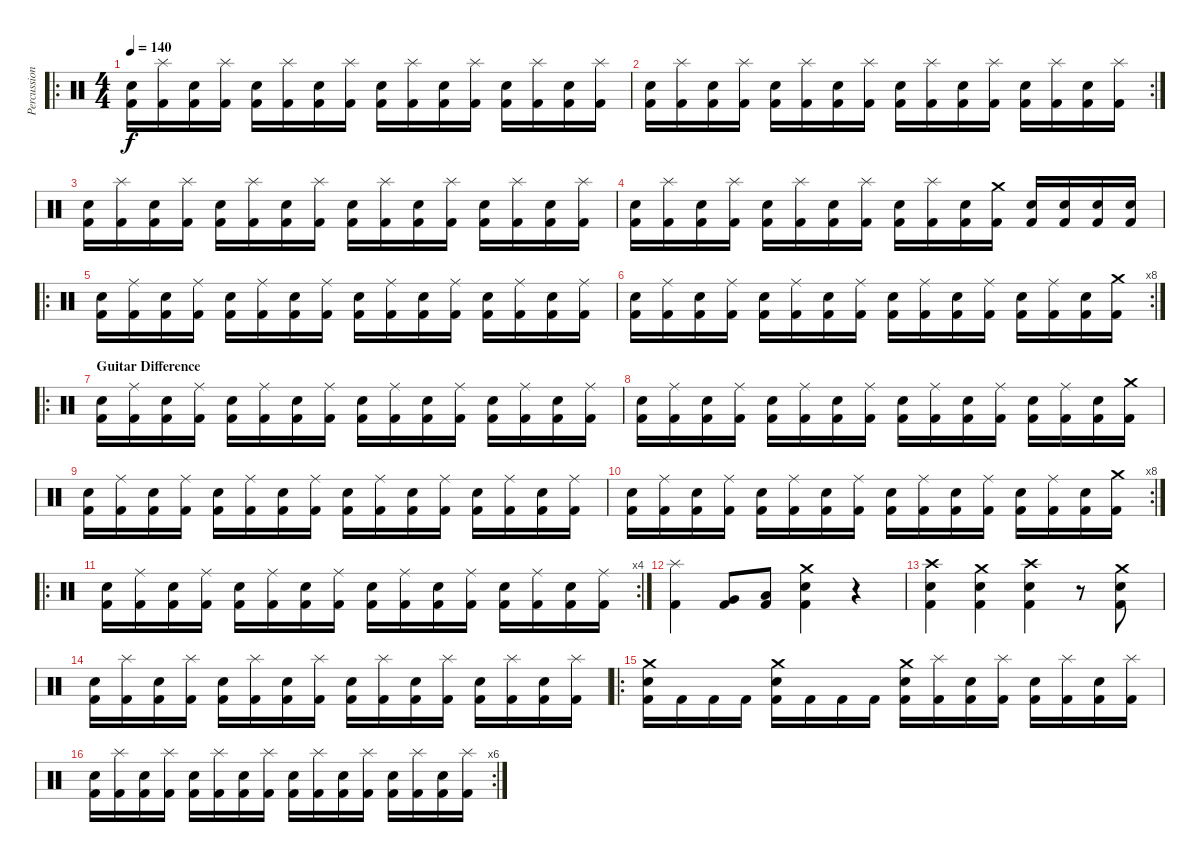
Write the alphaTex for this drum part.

\track ("Percussion" "Percussion") {instrument percussion}
\staff {score}
\articulation defaults
\ro
\ts (4 4)
\tempo 140
\clef neutral
\ks c
("Electric Snare (hit)" "Kick (hit) 2").16{dy f} ("Splash (hit)" "Kick (hit) 2").16 ("Electric Snare (hit)" "Kick (hit) 2").16 ("Splash (hit)" "Kick (hit) 2").16 ("Electric Snare (hit)" "Kick (hit) 2").16 ("Splash (hit)" "Kick (hit) 2").16 ("Electric Snare (hit)" "Kick (hit) 2").16 ("Splash (hit)" "Kick (hit) 2").16 ("Electric Snare (hit)" "Kick (hit) 2").16 ("Splash (hit)" "Kick (hit) 2").16 ("Electric Snare (hit)" "Kick (hit) 2").16 ("Splash (hit)" "Kick (hit) 2").16 ("Electric Snare (hit)" "Kick (hit) 2").16 ("Splash (hit)" "Kick (hit) 2").16 ("Electric Snare (hit)" "Kick (hit) 2").16 ("Splash (hit)" "Kick (hit) 2").16 |
\rc 2
("Electric Snare (hit)" "Kick (hit) 2").16 ("Splash (hit)" "Kick (hit) 2").16 ("Electric Snare (hit)" "Kick (hit) 2").16 ("Splash (hit)" "Kick (hit) 2").16 ("Electric Snare (hit)" "Kick (hit) 2").16 ("Splash (hit)" "Kick (hit) 2").16 ("Electric Snare (hit)" "Kick (hit) 2").16 ("Splash (hit)" "Kick (hit) 2").16 ("Electric Snare (hit)" "Kick (hit) 2").16 ("Splash (hit)" "Kick (hit) 2").16 ("Electric Snare (hit)" "Kick (hit) 2").16 ("Splash (hit)" "Kick (hit) 2").16 ("Electric Snare (hit)" "Kick (hit) 2").16 ("Splash (hit)" "Kick (hit) 2").16 ("Electric Snare (hit)" "Kick (hit) 2").16 ("Splash (hit)" "Kick (hit) 2").16 |
("Electric Snare (hit)" "Kick (hit) 2").16 ("Splash (hit)" "Kick (hit) 2").16 ("Electric Snare (hit)" "Kick (hit) 2").16 ("Splash (hit)" "Kick (hit) 2").16 ("Electric Snare (hit)" "Kick (hit) 2").16 ("Splash (hit)" "Kick (hit) 2").16 ("Electric Snare (hit)" "Kick (hit) 2").16 ("Splash (hit)" "Kick (hit) 2").16 ("Electric Snare (hit)" "Kick (hit) 2").16 ("Splash (hit)" "Kick (hit) 2").16 ("Electric Snare (hit)" "Kick (hit) 2").16 ("Splash (hit)" "Kick (hit) 2").16 ("Electric Snare (hit)" "Kick (hit) 2").16 ("Splash (hit)" "Kick (hit) 2").16 ("Electric Snare (hit)" "Kick (hit) 2").16 ("Splash (hit)" "Kick (hit) 2").16 |
("Electric Snare (hit)" "Kick (hit) 2").16 ("Splash (hit)" "Kick (hit) 2").16 ("Electric Snare (hit)" "Kick (hit) 2").16 ("Splash (hit)" "Kick (hit) 2").16 ("Electric Snare (hit)" "Kick (hit) 2").16 ("Splash (hit)" "Kick (hit) 2").16 ("Electric Snare (hit)" "Kick (hit) 2").16 ("Splash (hit)" "Kick (hit) 2").16 ("Electric Snare (hit)" "Kick (hit) 2").16 ("Splash (hit)" "Kick (hit) 2").16 ("Electric Snare (hit)" "Kick (hit) 2").16 ("Crash medium (hit)" "Kick (hit) 2").16 ("Electric Snare (hit)" "Kick (hit) 2").16 ("Electric Snare (hit)" "Kick (hit) 2").16 ("Electric Snare (hit)" "Kick (hit) 2").16 ("Electric Snare (hit)" "Kick (hit) 2").16 |
\ro
("Electric Snare (hit)" "Kick (hit) 2").16 ("Ride (middle)" "Kick (hit) 2").16 ("Electric Snare (hit)" "Kick (hit) 2").16 ("Ride (middle)" "Kick (hit) 2").16 ("Electric Snare (hit)" "Kick (hit) 2").16 ("Ride (middle)" "Kick (hit) 2").16 ("Electric Snare (hit)" "Kick (hit) 2").16 ("Ride (middle)" "Kick (hit) 2").16 ("Electric Snare (hit)" "Kick (hit) 2").16 ("Ride (middle)" "Kick (hit) 2").16 ("Electric Snare (hit)" "Kick (hit) 2").16 ("Ride (middle)" "Kick (hit) 2").16 ("Electric Snare (hit)" "Kick (hit) 2").16 ("Ride (middle)" "Kick (hit) 2").16 ("Electric Snare (hit)" "Kick (hit) 2").16 ("Ride (middle)" "Kick (hit) 2").16 |
\rc 8
("Electric Snare (hit)" "Kick (hit) 2").16 ("Ride (middle)" "Kick (hit) 2").16 ("Electric Snare (hit)" "Kick (hit) 2").16 ("Ride (middle)" "Kick (hit) 2").16 ("Electric Snare (hit)" "Kick (hit) 2").16 ("Ride (middle)" "Kick (hit) 2").16 ("Electric Snare (hit)" "Kick (hit) 2").16 ("Ride (middle)" "Kick (hit) 2").16 ("Electric Snare (hit)" "Kick (hit) 2").16 ("Ride (middle)" "Kick (hit) 2").16 ("Electric Snare (hit)" "Kick (hit) 2").16 ("Ride (middle)" "Kick (hit) 2").16 ("Electric Snare (hit)" "Kick (hit) 2").16 ("Ride (middle)" "Kick (hit) 2").16 ("Electric Snare (hit)" "Kick (hit) 2").16 ("Crash medium (hit)" "Kick (hit) 2").16 |
\ro
\section ("" "Guitar Difference")
("Electric Snare (hit)" "Kick (hit) 2").16 ("Ride (middle)" "Kick (hit) 2").16 ("Electric Snare (hit)" "Kick (hit) 2").16 ("Ride (middle)" "Kick (hit) 2").16 ("Electric Snare (hit)" "Kick (hit) 2").16 ("Ride (middle)" "Kick (hit) 2").16 ("Electric Snare (hit)" "Kick (hit) 2").16 ("Ride (middle)" "Kick (hit) 2").16 ("Electric Snare (hit)" "Kick (hit) 2").16 ("Ride (middle)" "Kick (hit) 2").16 ("Electric Snare (hit)" "Kick (hit) 2").16 ("Ride (middle)" "Kick (hit) 2").16 ("Electric Snare (hit)" "Kick (hit) 2").16 ("Ride (middle)" "Kick (hit) 2").16 ("Electric Snare (hit)" "Kick (hit) 2").16 ("Ride (middle)" "Kick (hit) 2").16 |
("Electric Snare (hit)" "Kick (hit) 2").16 ("Ride (middle)" "Kick (hit) 2").16 ("Electric Snare (hit)" "Kick (hit) 2").16 ("Ride (middle)" "Kick (hit) 2").16 ("Electric Snare (hit)" "Kick (hit) 2").16 ("Ride (middle)" "Kick (hit) 2").16 ("Electric Snare (hit)" "Kick (hit) 2").16 ("Ride (middle)" "Kick (hit) 2").16 ("Electric Snare (hit)" "Kick (hit) 2").16 ("Ride (middle)" "Kick (hit) 2").16 ("Electric Snare (hit)" "Kick (hit) 2").16 ("Ride (middle)" "Kick (hit) 2").16 ("Electric Snare (hit)" "Kick (hit) 2").16 ("Ride (middle)" "Kick (hit) 2").16 ("Electric Snare (hit)" "Kick (hit) 2").16 ("Crash medium (hit)" "Kick (hit) 2").16 |
("Electric Snare (hit)" "Kick (hit) 2").16 ("Ride (middle)" "Kick (hit) 2").16 ("Electric Snare (hit)" "Kick (hit) 2").16 ("Ride (middle)" "Kick (hit) 2").16 ("Electric Snare (hit)" "Kick (hit) 2").16 ("Ride (middle)" "Kick (hit) 2").16 ("Electric Snare (hit)" "Kick (hit) 2").16 ("Ride (middle)" "Kick (hit) 2").16 ("Electric Snare (hit)" "Kick (hit) 2").16 ("Ride (middle)" "Kick (hit) 2").16 ("Electric Snare (hit)" "Kick (hit) 2").16 ("Ride (middle)" "Kick (hit) 2").16 ("Electric Snare (hit)" "Kick (hit) 2").16 ("Ride (middle)" "Kick (hit) 2").16 ("Electric Snare (hit)" "Kick (hit) 2").16 ("Ride (middle)" "Kick (hit) 2").16 |
\rc 8
("Electric Snare (hit)" "Kick (hit) 2").16 ("Ride (middle)" "Kick (hit) 2").16 ("Electric Snare (hit)" "Kick (hit) 2").16 ("Ride (middle)" "Kick (hit) 2").16 ("Electric Snare (hit)" "Kick (hit) 2").16 ("Ride (middle)" "Kick (hit) 2").16 ("Electric Snare (hit)" "Kick (hit) 2").16 ("Ride (middle)" "Kick (hit) 2").16 ("Electric Snare (hit)" "Kick (hit) 2").16 ("Ride (middle)" "Kick (hit) 2").16 ("Electric Snare (hit)" "Kick (hit) 2").16 ("Ride (middle)" "Kick (hit) 2").16 ("Electric Snare (hit)" "Kick (hit) 2").16 ("Ride (middle)" "Kick (hit) 2").16 ("Electric Snare (hit)" "Kick (hit) 2").16 ("Crash medium (hit)" "Kick (hit) 2").16 |
\ro
\rc 4
("Electric Snare (hit)" "Kick (hit) 2").16 ("Ride (middle)" "Kick (hit) 2").16 ("Electric Snare (hit)" "Kick (hit) 2").16 ("Ride (middle)" "Kick (hit) 2").16 ("Electric Snare (hit)" "Kick (hit) 2").16 ("Ride (middle)" "Kick (hit) 2").16 ("Electric Snare (hit)" "Kick (hit) 2").16 ("Ride (middle)" "Kick (hit) 2").16 ("Electric Snare (hit)" "Kick (hit) 2").16 ("Ride (middle)" "Kick (hit) 2").16 ("Electric Snare (hit)" "Kick (hit) 2").16 ("Ride (middle)" "Kick (hit) 2").16 ("Electric Snare (hit)" "Kick (hit) 2").16 ("Ride (middle)" "Kick (hit) 2").16 ("Electric Snare (hit)" "Kick (hit) 2").16 ("Ride (middle)" "Kick (hit) 2").16 |
("Splash (hit)" "Kick (hit) 2").4 ("Very Low Tom (hit)" "Kick (hit) 2").8 ("Low Floor Tom (hit)" "Kick (hit) 2").8 ("Electric Snare (hit)" "Crash medium (hit)" "Kick (hit) 2").4 r.4 |
("Electric Snare (hit)" "Crash high (hit)" "Kick (hit) 2").4 ("Electric Snare (hit)" "Crash medium (hit)" "Kick (hit) 2").4 ("Electric Snare (hit)" "Crash high (hit)" "Kick (hit) 2").4 r.8 ("Electric Snare (hit)" "Crash medium (hit)" "Kick (hit) 2").8 |
("Electric Snare (hit)" "Kick (hit) 2").16 ("Splash (hit)" "Kick (hit) 2").16 ("Electric Snare (hit)" "Kick (hit) 2").16 ("Splash (hit)" "Kick (hit) 2").16 ("Electric Snare (hit)" "Kick (hit) 2").16 ("Splash (hit)" "Kick (hit) 2").16 ("Electric Snare (hit)" "Kick (hit) 2").16 ("Splash (hit)" "Kick (hit) 2").16 ("Electric Snare (hit)" "Kick (hit) 2").16 ("Splash (hit)" "Kick (hit) 2").16 ("Electric Snare (hit)" "Kick (hit) 2").16 ("Splash (hit)" "Kick (hit) 2").16 ("Electric Snare (hit)" "Kick (hit) 2").16 ("Splash (hit)" "Kick (hit) 2").16 ("Electric Snare (hit)" "Kick (hit) 2").16 ("Splash (hit)" "Kick (hit) 2").16 |
\ro
("Electric Snare (hit)" "Crash medium (hit)" "Kick (hit) 2").16 "Kick (hit) 2".16 "Kick (hit) 2".16 "Kick (hit) 2".16 ("Electric Snare (hit)" "Crash medium (hit)" "Kick (hit) 2").16 "Kick (hit) 2".16 "Kick (hit) 2".16 "Kick (hit) 2".16 ("Electric Snare (hit)" "Crash medium (hit)" "Kick (hit) 2").16 ("Splash (hit)" "Kick (hit) 2").16 ("Electric Snare (hit)" "Kick (hit) 2").16 ("Splash (hit)" "Kick (hit) 2").16 ("Electric Snare (hit)" "Kick (hit) 2").16 ("Splash (hit)" "Kick (hit) 2").16 ("Electric Snare (hit)" "Kick (hit) 2").16 ("Splash (hit)" "Kick (hit) 2").16 |
\rc 6
("Electric Snare (hit)" "Kick (hit) 2").16 ("Splash (hit)" "Kick (hit) 2").16 ("Electric Snare (hit)" "Kick (hit) 2").16 ("Splash (hit)" "Kick (hit) 2").16 ("Electric Snare (hit)" "Kick (hit) 2").16 ("Splash (hit)" "Kick (hit) 2").16 ("Electric Snare (hit)" "Kick (hit) 2").16 ("Splash (hit)" "Kick (hit) 2").16 ("Electric Snare (hit)" "Kick (hit) 2").16 ("Splash (hit)" "Kick (hit) 2").16 ("Electric Snare (hit)" "Kick (hit) 2").16 ("Splash (hit)" "Kick (hit) 2").16 ("Electric Snare (hit)" "Kick (hit) 2").16 ("Splash (hit)" "Kick (hit) 2").16 ("Electric Snare (hit)" "Kick (hit) 2").16 ("Splash (hit)" "Kick (hit) 2").16
